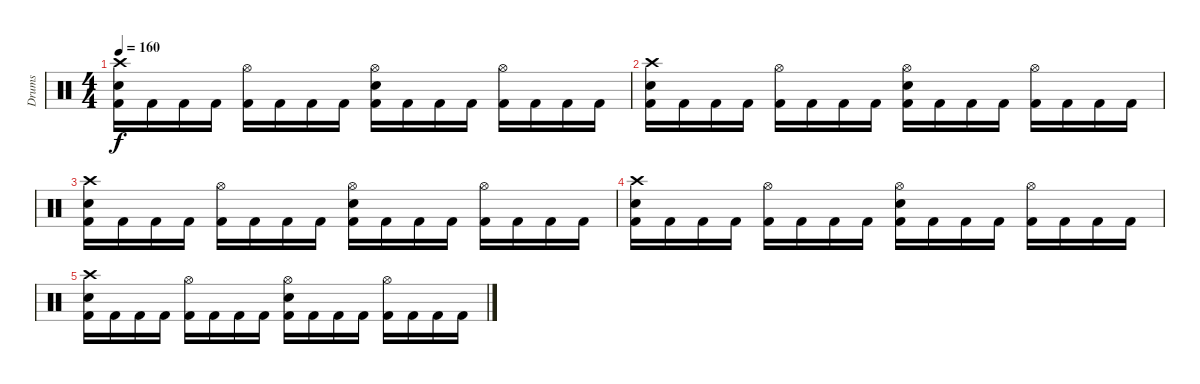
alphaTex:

\track ("Drums" "Drums") {instrument percussion}
\staff {score}
\articulation defaults
\ts (4 4)
\tempo 160
\clef neutral
\ks c
("Kick (hit) 2" "Snare (hit) 2" "Crash high (hit)").16{dy f volume 3} "Kick (hit) 2".16 "Kick (hit) 2".16 "Kick (hit) 2".16 ("Kick (hit) 2" "Hi-Hat (open)").16 "Kick (hit) 2".16 "Kick (hit) 2".16 "Kick (hit) 2".16 ("Kick (hit) 2" "Hi-Hat (open)" "Snare (hit) 2").16 "Kick (hit) 2".16 "Kick (hit) 2".16 "Kick (hit) 2".16 ("Kick (hit) 2" "Hi-Hat (open)").16 "Kick (hit) 2".16 "Kick (hit) 2".16 "Kick (hit) 2".16 |
("Kick (hit) 2" "Snare (hit) 2" "Crash high (hit)").16 "Kick (hit) 2".16 "Kick (hit) 2".16 "Kick (hit) 2".16 ("Kick (hit) 2" "Hi-Hat (open)").16 "Kick (hit) 2".16 "Kick (hit) 2".16 "Kick (hit) 2".16 ("Kick (hit) 2" "Hi-Hat (open)" "Snare (hit) 2").16 "Kick (hit) 2".16 "Kick (hit) 2".16 "Kick (hit) 2".16 ("Kick (hit) 2" "Hi-Hat (open)").16 "Kick (hit) 2".16 "Kick (hit) 2".16 "Kick (hit) 2".16 |
("Kick (hit) 2" "Snare (hit) 2" "Crash high (hit)").16{volume 1} "Kick (hit) 2".16 "Kick (hit) 2".16 "Kick (hit) 2".16 ("Kick (hit) 2" "Hi-Hat (open)").16 "Kick (hit) 2".16 "Kick (hit) 2".16 "Kick (hit) 2".16 ("Kick (hit) 2" "Hi-Hat (open)" "Snare (hit) 2").16 "Kick (hit) 2".16 "Kick (hit) 2".16 "Kick (hit) 2".16 ("Kick (hit) 2" "Hi-Hat (open)").16 "Kick (hit) 2".16 "Kick (hit) 2".16 "Kick (hit) 2".16 |
("Kick (hit) 2" "Snare (hit) 2" "Crash high (hit)").16 "Kick (hit) 2".16 "Kick (hit) 2".16 "Kick (hit) 2".16 ("Kick (hit) 2" "Hi-Hat (open)").16 "Kick (hit) 2".16 "Kick (hit) 2".16 "Kick (hit) 2".16 ("Kick (hit) 2" "Hi-Hat (open)" "Snare (hit) 2").16 "Kick (hit) 2".16 "Kick (hit) 2".16 "Kick (hit) 2".16 ("Kick (hit) 2" "Hi-Hat (open)").16 "Kick (hit) 2".16 "Kick (hit) 2".16 "Kick (hit) 2".16 |
("Kick (hit) 2" "Snare (hit) 2" "Crash high (hit)").16{volume 0} "Kick (hit) 2".16 "Kick (hit) 2".16 "Kick (hit) 2".16 ("Kick (hit) 2" "Hi-Hat (open)").16 "Kick (hit) 2".16 "Kick (hit) 2".16 "Kick (hit) 2".16 ("Kick (hit) 2" "Hi-Hat (open)" "Snare (hit) 2").16 "Kick (hit) 2".16 "Kick (hit) 2".16 "Kick (hit) 2".16 ("Kick (hit) 2" "Hi-Hat (open)").16 "Kick (hit) 2".16 "Kick (hit) 2".16 "Kick (hit) 2".16
